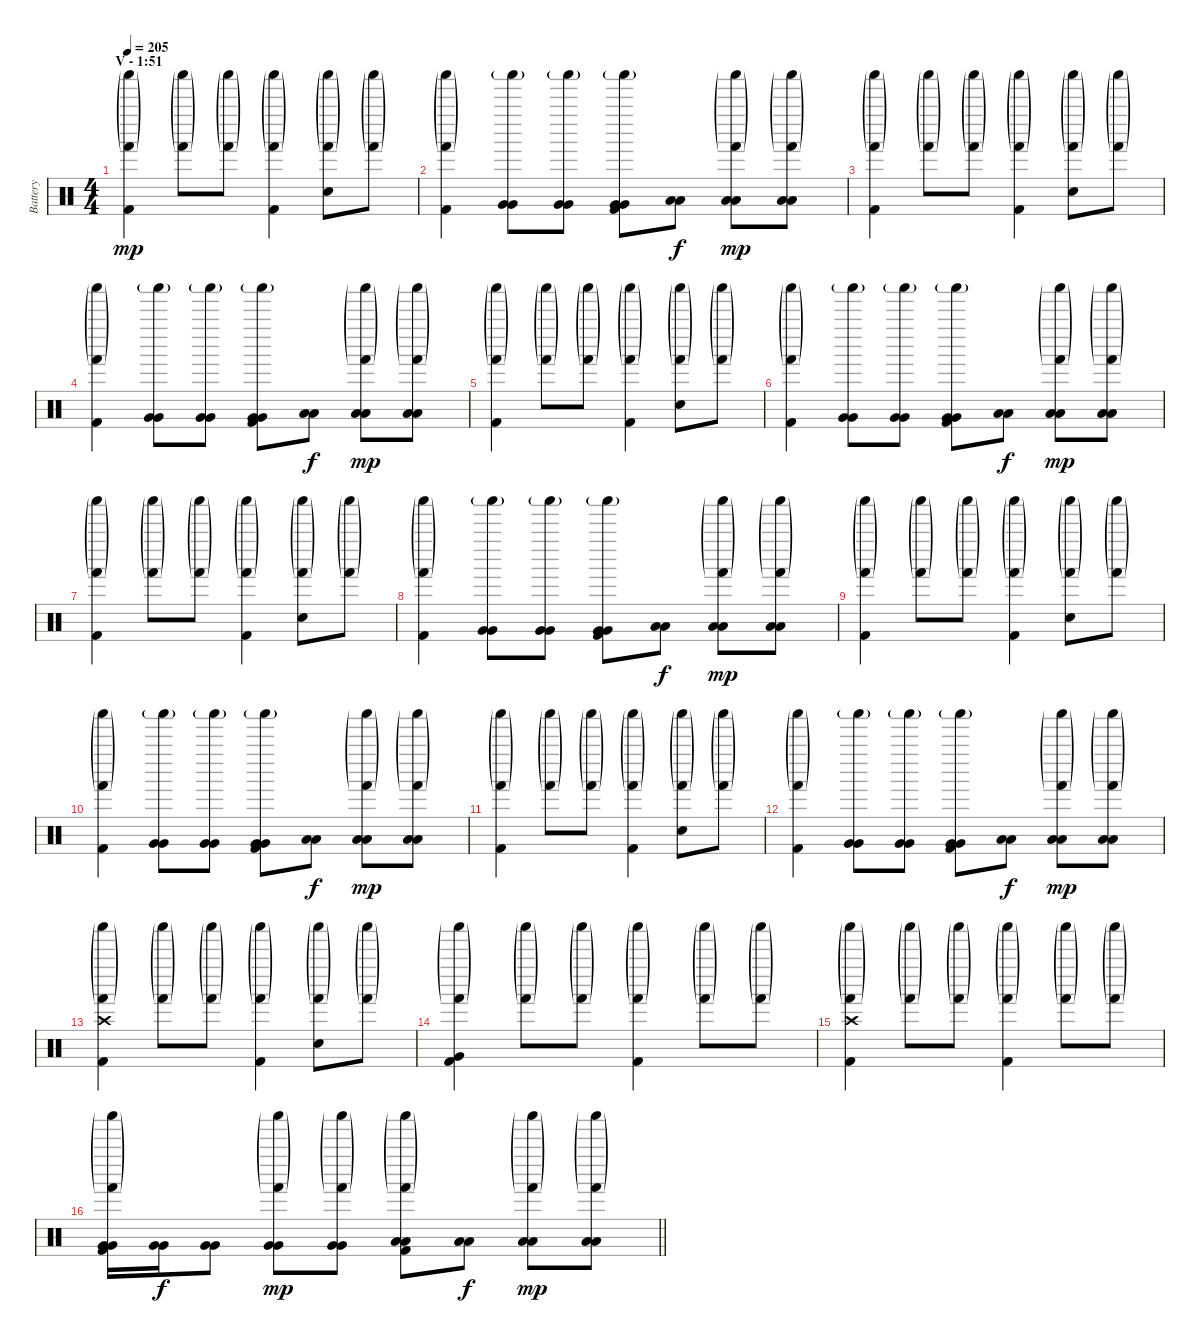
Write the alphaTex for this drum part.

\track ("Battery" "Battery") {instrument percussion}
\staff {score}
\articulation defaults
\ts (4 4)
\section ("" "V - 1:51")
\tempo 205
\clef neutral
\ks c
("Shaker (hit)"{g} "Hand (hit)"{g} "Kick (hit) 2").4{dy mp} ("Shaker (hit)"{g} "Hand (hit)"{g}).8 ("Shaker (hit)"{g} "Hand (hit)"{g}).8 ("Shaker (hit)"{g} "Hand (hit)"{g} "Kick (hit) 2").4 ("Shaker (hit)"{g} "Hand (hit)"{g} "Electric Snare (hit)").8 ("Shaker (hit)"{g} "Hand (hit)"{g}).8 |
("Shaker (hit)"{g} "Hand (hit)"{g} "Kick (hit) 2").4 ("Shaker (hit)"{g} "Very Low Tom (hit)" "Very Low Tom (hit)").8 ("Shaker (hit)"{g} "Very Low Tom (hit)" "Very Low Tom (hit)").8 ("Shaker (hit)"{g} "Very Low Tom (hit)" "Very Low Tom (hit)" "Kick (hit) 2").8 ("Low Floor Tom (hit)" "Low Floor Tom (hit)").8{dy f} ("Shaker (hit)"{g} "Hand (hit)"{g} "Low Floor Tom (hit)" "Low Floor Tom (hit)").8{dy mp} ("Shaker (hit)"{g} "Hand (hit)"{g} "Low Floor Tom (hit)" "Low Floor Tom (hit)").8 |
("Shaker (hit)"{g} "Hand (hit)"{g} "Kick (hit) 2").4 ("Shaker (hit)"{g} "Hand (hit)"{g}).8 ("Shaker (hit)"{g} "Hand (hit)"{g}).8 ("Shaker (hit)"{g} "Hand (hit)"{g} "Kick (hit) 2").4 ("Shaker (hit)"{g} "Hand (hit)"{g} "Electric Snare (hit)").8 ("Shaker (hit)"{g} "Hand (hit)"{g}).8 |
("Shaker (hit)"{g} "Hand (hit)"{g} "Kick (hit) 2").4 ("Shaker (hit)"{g} "Very Low Tom (hit)" "Very Low Tom (hit)").8 ("Shaker (hit)"{g} "Very Low Tom (hit)" "Very Low Tom (hit)").8 ("Shaker (hit)"{g} "Very Low Tom (hit)" "Very Low Tom (hit)" "Kick (hit) 2").8 ("Low Floor Tom (hit)" "Low Floor Tom (hit)").8{dy f} ("Shaker (hit)"{g} "Hand (hit)"{g} "Low Floor Tom (hit)" "Low Floor Tom (hit)").8{dy mp} ("Shaker (hit)"{g} "Hand (hit)"{g} "Low Floor Tom (hit)" "Low Floor Tom (hit)").8 |
("Shaker (hit)"{g} "Hand (hit)"{g} "Kick (hit) 2").4 ("Shaker (hit)"{g} "Hand (hit)"{g}).8 ("Shaker (hit)"{g} "Hand (hit)"{g}).8 ("Shaker (hit)"{g} "Hand (hit)"{g} "Kick (hit) 2").4 ("Shaker (hit)"{g} "Hand (hit)"{g} "Electric Snare (hit)").8 ("Shaker (hit)"{g} "Hand (hit)"{g}).8 |
("Shaker (hit)"{g} "Hand (hit)"{g} "Kick (hit) 2").4 ("Shaker (hit)"{g} "Very Low Tom (hit)" "Very Low Tom (hit)").8 ("Shaker (hit)"{g} "Very Low Tom (hit)" "Very Low Tom (hit)").8 ("Shaker (hit)"{g} "Very Low Tom (hit)" "Very Low Tom (hit)" "Kick (hit) 2").8 ("Low Floor Tom (hit)" "Low Floor Tom (hit)").8{dy f} ("Shaker (hit)"{g} "Hand (hit)"{g} "Low Floor Tom (hit)" "Low Floor Tom (hit)").8{dy mp} ("Shaker (hit)"{g} "Hand (hit)"{g} "Low Floor Tom (hit)" "Low Floor Tom (hit)").8 |
("Shaker (hit)"{g} "Hand (hit)"{g} "Kick (hit) 2").4 ("Shaker (hit)"{g} "Hand (hit)"{g}).8 ("Shaker (hit)"{g} "Hand (hit)"{g}).8 ("Shaker (hit)"{g} "Hand (hit)"{g} "Kick (hit) 2").4 ("Shaker (hit)"{g} "Hand (hit)"{g} "Electric Snare (hit)").8 ("Shaker (hit)"{g} "Hand (hit)"{g}).8 |
("Shaker (hit)"{g} "Hand (hit)"{g} "Kick (hit) 2").4 ("Shaker (hit)"{g} "Very Low Tom (hit)" "Very Low Tom (hit)").8 ("Shaker (hit)"{g} "Very Low Tom (hit)" "Very Low Tom (hit)").8 ("Shaker (hit)"{g} "Very Low Tom (hit)" "Very Low Tom (hit)" "Kick (hit) 2").8 ("Low Floor Tom (hit)" "Low Floor Tom (hit)").8{dy f} ("Shaker (hit)"{g} "Hand (hit)"{g} "Low Floor Tom (hit)" "Low Floor Tom (hit)").8{dy mp} ("Shaker (hit)"{g} "Hand (hit)"{g} "Low Floor Tom (hit)" "Low Floor Tom (hit)").8 |
("Shaker (hit)"{g} "Hand (hit)"{g} "Kick (hit) 2").4 ("Shaker (hit)"{g} "Hand (hit)"{g}).8 ("Shaker (hit)"{g} "Hand (hit)"{g}).8 ("Shaker (hit)"{g} "Hand (hit)"{g} "Kick (hit) 2").4 ("Shaker (hit)"{g} "Hand (hit)"{g} "Electric Snare (hit)").8 ("Shaker (hit)"{g} "Hand (hit)"{g}).8 |
("Shaker (hit)"{g} "Hand (hit)"{g} "Kick (hit) 2").4 ("Shaker (hit)"{g} "Very Low Tom (hit)" "Very Low Tom (hit)").8 ("Shaker (hit)"{g} "Very Low Tom (hit)" "Very Low Tom (hit)").8 ("Shaker (hit)"{g} "Very Low Tom (hit)" "Very Low Tom (hit)" "Kick (hit) 2").8 ("Low Floor Tom (hit)" "Low Floor Tom (hit)").8{dy f} ("Shaker (hit)"{g} "Hand (hit)"{g} "Low Floor Tom (hit)" "Low Floor Tom (hit)").8{dy mp} ("Shaker (hit)"{g} "Hand (hit)"{g} "Low Floor Tom (hit)" "Low Floor Tom (hit)").8 |
("Shaker (hit)"{g} "Hand (hit)"{g} "Kick (hit) 2").4 ("Shaker (hit)"{g} "Hand (hit)"{g}).8 ("Shaker (hit)"{g} "Hand (hit)"{g}).8 ("Shaker (hit)"{g} "Hand (hit)"{g} "Kick (hit) 2").4 ("Shaker (hit)"{g} "Hand (hit)"{g} "Electric Snare (hit)").8 ("Shaker (hit)"{g} "Hand (hit)"{g}).8 |
("Shaker (hit)"{g} "Hand (hit)"{g} "Kick (hit) 2").4 ("Shaker (hit)"{g} "Very Low Tom (hit)" "Very Low Tom (hit)").8 ("Shaker (hit)"{g} "Very Low Tom (hit)" "Very Low Tom (hit)").8 ("Shaker (hit)"{g} "Very Low Tom (hit)" "Very Low Tom (hit)" "Kick (hit) 2").8 ("Low Floor Tom (hit)" "Low Floor Tom (hit)").8{dy f} ("Shaker (hit)"{g} "Hand (hit)"{g} "Low Floor Tom (hit)" "Low Floor Tom (hit)").8{dy mp} ("Shaker (hit)"{g} "Hand (hit)"{g} "Low Floor Tom (hit)" "Low Floor Tom (hit)").8 |
("Shaker (hit)"{g} "Crash high (hit)" "Hand (hit)"{g} "Kick (hit) 2").4 ("Shaker (hit)"{g} "Hand (hit)"{g}).8 ("Shaker (hit)"{g} "Hand (hit)"{g}).8 ("Shaker (hit)"{g} "Hand (hit)"{g} "Kick (hit) 2").4 ("Shaker (hit)"{g} "Hand (hit)"{g} "Electric Snare (hit)").8 ("Shaker (hit)"{g} "Hand (hit)"{g}).8 |
("Shaker (hit)"{g} "Hand (hit)"{g} "Very Low Tom (hit)" "Kick (hit) 2").4 ("Shaker (hit)"{g} "Hand (hit)"{g}).8 ("Shaker (hit)"{g} "Hand (hit)"{g}).8 ("Shaker (hit)"{g} "Hand (hit)"{g} "Kick (hit) 2").4 ("Shaker (hit)"{g} "Hand (hit)"{g}).8 ("Shaker (hit)"{g} "Hand (hit)"{g}).8 |
("Shaker (hit)"{g} "Crash high (hit)" "Hand (hit)"{g} "Kick (hit) 2").4 ("Shaker (hit)"{g} "Hand (hit)"{g}).8 ("Shaker (hit)"{g} "Hand (hit)"{g}).8 ("Shaker (hit)"{g} "Hand (hit)"{g} "Kick (hit) 2").4 ("Shaker (hit)"{g} "Hand (hit)"{g}).8 ("Shaker (hit)"{g} "Hand (hit)"{g}).8 |
\barLineRight lightlight
("Shaker (hit)"{g} "Hand (hit)"{g} "Very Low Tom (hit)" "Very Low Tom (hit)" "Kick (hit) 2").16 ("Very Low Tom (hit)" "Very Low Tom (hit)").16{dy f} ("Very Low Tom (hit)" "Very Low Tom (hit)").8 ("Shaker (hit)"{g} "Hand (hit)"{g} "Very Low Tom (hit)" "Very Low Tom (hit)").8{dy mp} ("Shaker (hit)"{g} "Hand (hit)"{g} "Very Low Tom (hit)" "Very Low Tom (hit)").8 ("Shaker (hit)"{g} "Hand (hit)"{g} "Low Floor Tom (hit)" "Low Floor Tom (hit)" "Kick (hit) 2").8 ("Low Floor Tom (hit)" "Low Floor Tom (hit)").8{dy f} ("Shaker (hit)"{g} "Hand (hit)"{g} "Low Floor Tom (hit)" "Low Floor Tom (hit)").8{dy mp} ("Shaker (hit)"{g} "Hand (hit)"{g} "Low Floor Tom (hit)" "Low Floor Tom (hit)").8
